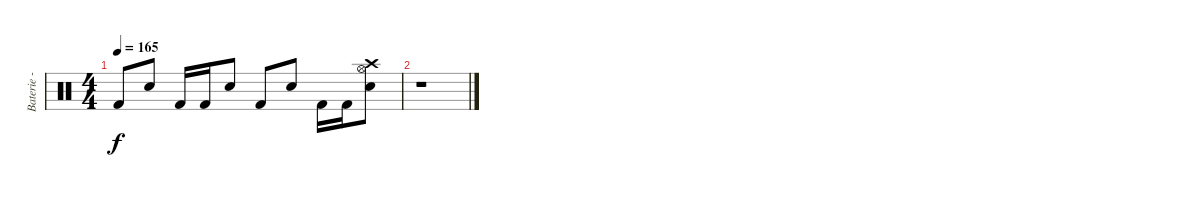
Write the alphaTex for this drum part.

\track ("Baterie - Guillaume" "Baterie - ") {instrument percussion}
\staff {score}
\articulation defaults
\ts (4 4)
\tempo 165
\clef neutral
\ks c "Kick (hit) 2".8{dy f} "Electric Snare (hit)".8 "Kick (hit) 2".16 "Kick (hit) 2".16 "Electric Snare (hit)".8 "Kick (hit) 2".8 "Electric Snare (hit)".8 "Kick (hit) 2".16 "Kick (hit) 2".16
("Crash high (hit)" "Hi-Hat (open)" "Electric Snare (hit)").8 |
r.1
